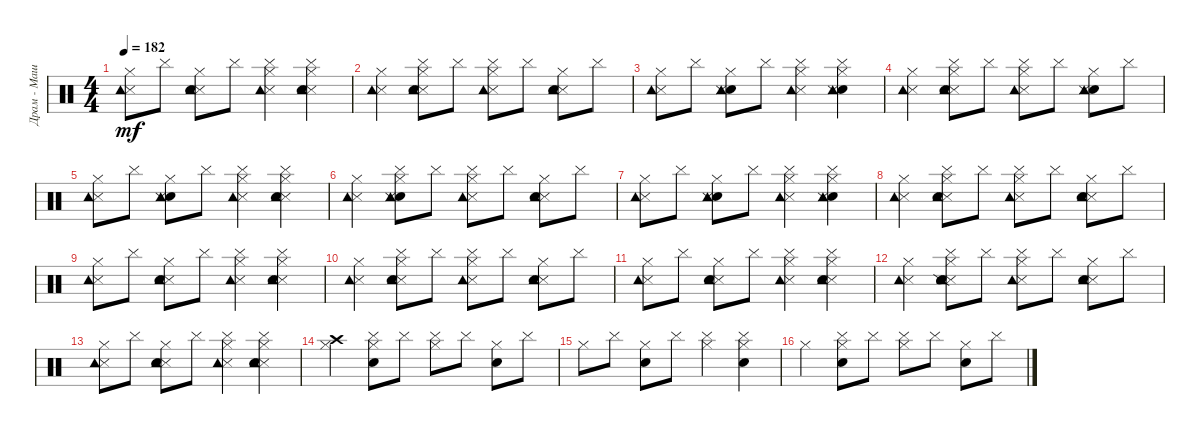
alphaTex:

\track ("Драм - Машина" "Драм - Маш") {instrument percussion}
\staff {score}
\articulation defaults
\ts (4 4)
\tempo 182
\clef neutral
\ks c
("Metronome (hit)" "Tambourine (hit)" "Hi-Hat (closed)").8{dy mf} "Cymbal (hit)".8 ("Metronome (hit)" "Metronome (bell)" "Hi-Hat (closed)" "Tambourine (hit)").8 "Cymbal (hit)".8 ("Metronome (hit)" "Hi-Hat (closed)" "Tambourine (hit)" "Cymbal (hit)").4 ("Metronome (hit)" "Metronome (bell)" "Hi-Hat (closed)" "Tambourine (hit)" "Cymbal (hit)").4 |
("Metronome (hit)" "Tambourine (hit)" "Hi-Hat (closed)").4 ("Metronome (hit)" "Metronome (bell)" "Cymbal (hit)" "Tambourine (hit)" "Hi-Hat (closed)").8 "Cymbal (hit)".8 ("Metronome (hit)" "Cymbal (hit)" "Hi-Hat (closed)" "Tambourine (hit)").8 "Cymbal (hit)".8 ("Metronome (hit)" "Metronome (bell)" "Tambourine (hit)" "Hi-Hat (closed)").8 "Cymbal (hit)".8 |
("Metronome (hit)" "Hi-Hat (closed)" "Tambourine (hit)").8 "Cymbal (hit)".8 ("Metronome (bell)" "Metronome (hit)" "Tambourine (hit)" "Hi-Hat (closed)").8 "Cymbal (hit)".8 ("Metronome (hit)" "Cymbal (hit)" "Hi-Hat (closed)" "Tambourine (hit)").4 ("Metronome (bell)" "Metronome (hit)" "Cymbal (hit)" "Hi-Hat (closed)" "Tambourine (hit)").4 |
("Metronome (hit)" "Hi-Hat (closed)" "Tambourine (hit)").4 ("Metronome (hit)" "Metronome (bell)" "Cymbal (hit)" "Tambourine (hit)" "Hi-Hat (closed)").8 "Cymbal (hit)".8 ("Metronome (hit)" "Cymbal (hit)" "Tambourine (hit)" "Hi-Hat (closed)").8 "Cymbal (hit)".8 ("Metronome (bell)" "Metronome (hit)" "Tambourine (hit)" "Hi-Hat (closed)").8 "Cymbal (hit)".8 |
("Metronome (hit)" "Tambourine (hit)" "Hi-Hat (closed)").8 "Cymbal (hit)".8 ("Metronome (bell)" "Metronome (hit)" "Hi-Hat (closed)" "Tambourine (hit)").8 "Cymbal (hit)".8 ("Metronome (hit)" "Cymbal (hit)" "Hi-Hat (closed)" "Tambourine (hit)").4 ("Metronome (hit)" "Metronome (bell)" "Cymbal (hit)" "Hi-Hat (closed)" "Tambourine (hit)").4 |
("Metronome (hit)" "Tambourine (hit)" "Hi-Hat (closed)").4 ("Metronome (bell)" "Metronome (hit)" "Cymbal (hit)" "Tambourine (hit)" "Hi-Hat (closed)").8 "Cymbal (hit)".8 ("Metronome (hit)" "Cymbal (hit)" "Hi-Hat (closed)" "Tambourine (hit)").8 "Cymbal (hit)".8 ("Metronome (hit)" "Metronome (bell)" "Tambourine (hit)" "Hi-Hat (closed)").8 "Cymbal (hit)".8 |
("Metronome (hit)" "Hi-Hat (closed)" "Tambourine (hit)").8 "Cymbal (hit)".8 ("Metronome (bell)" "Metronome (hit)" "Tambourine (hit)" "Hi-Hat (closed)").8 "Cymbal (hit)".8 ("Metronome (hit)" "Cymbal (hit)" "Hi-Hat (closed)" "Tambourine (hit)").4 ("Metronome (bell)" "Metronome (hit)" "Cymbal (hit)" "Hi-Hat (closed)" "Tambourine (hit)").4 |
("Metronome (hit)" "Hi-Hat (closed)" "Tambourine (hit)").4 ("Metronome (hit)" "Metronome (bell)" "Cymbal (hit)" "Tambourine (hit)" "Hi-Hat (closed)").8 "Cymbal (hit)".8 ("Metronome (hit)" "Cymbal (hit)" "Tambourine (hit)" "Hi-Hat (closed)").8 "Cymbal (hit)".8 ("Metronome (hit)" "Metronome (bell)" "Tambourine (hit)" "Hi-Hat (closed)").8 "Cymbal (hit)".8 |
("Metronome (hit)" "Tambourine (hit)" "Hi-Hat (closed)").8 "Cymbal (hit)".8 ("Metronome (hit)" "Metronome (bell)" "Hi-Hat (closed)" "Tambourine (hit)").8 "Cymbal (hit)".8 ("Metronome (hit)" "Cymbal (hit)" "Hi-Hat (closed)" "Tambourine (hit)").4 ("Metronome (hit)" "Metronome (bell)" "Cymbal (hit)" "Hi-Hat (closed)" "Tambourine (hit)").4 |
("Metronome (hit)" "Tambourine (hit)" "Hi-Hat (closed)").4 ("Metronome (hit)" "Metronome (bell)" "Cymbal (hit)" "Tambourine (hit)" "Hi-Hat (closed)").8 "Cymbal (hit)".8 ("Metronome (hit)" "Cymbal (hit)" "Hi-Hat (closed)" "Tambourine (hit)").8 "Cymbal (hit)".8 ("Metronome (hit)" "Metronome (bell)" "Tambourine (hit)" "Hi-Hat (closed)").8 "Cymbal (hit)".8 |
("Metronome (hit)" "Hi-Hat (closed)" "Tambourine (hit)").8 "Cymbal (hit)".8 ("Metronome (hit)" "Metronome (bell)" "Tambourine (hit)" "Hi-Hat (closed)").8 "Cymbal (hit)".8 ("Metronome (hit)" "Cymbal (hit)" "Hi-Hat (closed)" "Tambourine (hit)").4 ("Metronome (hit)" "Metronome (bell)" "Cymbal (hit)" "Hi-Hat (closed)" "Tambourine (hit)").4 |
("Metronome (hit)" "Hi-Hat (closed)" "Tambourine (hit)").4 ("Metronome (hit)" "Metronome (bell)" "Snare (side stick) 2" "Cymbal (hit)" "Tambourine (hit)" "Hi-Hat (closed)").8 "Cymbal (hit)".8 ("Metronome (hit)" "Cymbal (hit)" "Tambourine (hit)" "Hi-Hat (closed)").8 "Cymbal (hit)".8 ("Metronome (hit)" "Metronome (bell)" "Tambourine (hit)" "Hi-Hat (closed)").8 "Cymbal (hit)".8 |
("Metronome (hit)" "Tambourine (hit)" "Hi-Hat (closed)").8 "Cymbal (hit)".8 ("Metronome (hit)" "Metronome (bell)" "Hi-Hat (closed)" "Tambourine (hit)").8 "Cymbal (hit)".8 ("Metronome (hit)" "Cymbal (hit)" "Hi-Hat (closed)" "Tambourine (hit)").4 ("Metronome (hit)" "Metronome (bell)" "Cymbal (hit)" "Hi-Hat (closed)" "Tambourine (hit)").4 |
("Crash high (hit)" "Hi-Hat (closed)").4 ("Metronome (bell)" "Hi-Hat (closed)" "Cymbal (hit)").8 "Cymbal (hit)".8 ("Hi-Hat (closed)" "Cymbal (hit)").8 "Cymbal (hit)".8 ("Metronome (bell)" "Hi-Hat (closed)").8 "Cymbal (hit)".8 |
"Hi-Hat (closed)".8 "Cymbal (hit)".8 ("Metronome (bell)" "Hi-Hat (closed)").8 "Cymbal (hit)".8 ("Hi-Hat (closed)" "Cymbal (hit)").4 ("Metronome (bell)" "Hi-Hat (closed)" "Cymbal (hit)").4 |
"Hi-Hat (closed)".4 ("Metronome (bell)" "Hi-Hat (closed)" "Cymbal (hit)").8 "Cymbal (hit)".8 ("Hi-Hat (closed)" "Cymbal (hit)").8 "Cymbal (hit)".8 ("Metronome (bell)" "Hi-Hat (closed)").8 "Cymbal (hit)".8
